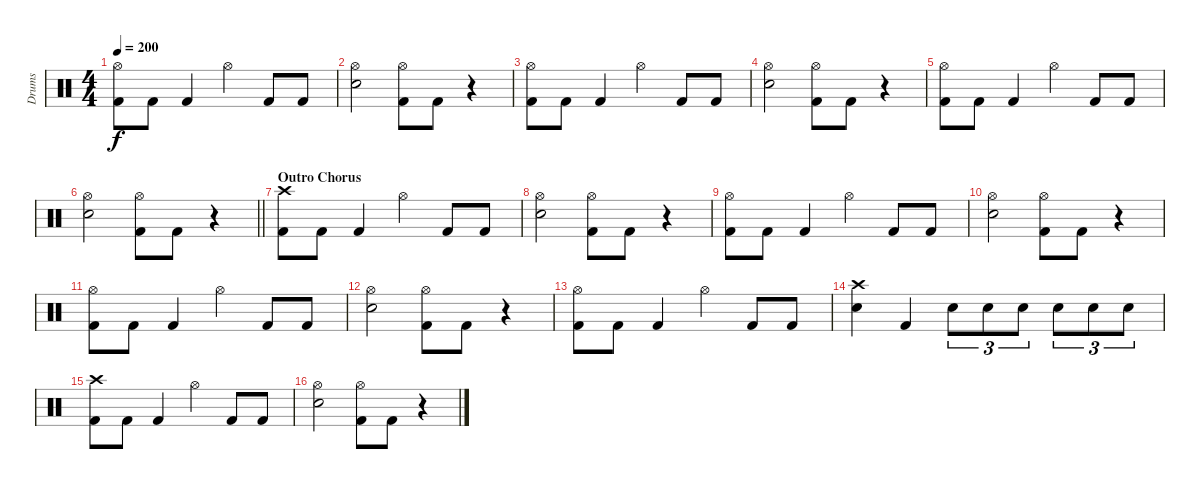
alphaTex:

\track ("Drums" "Drums") {instrument percussion}
\staff {score}
\articulation defaults
\ts (4 4)
\tempo 200
\clef neutral
\ks c
("Hi-Hat (open)" "Kick (hit) 2").8{dy f} "Kick (hit) 2".8 "Kick (hit) 2".4 "Hi-Hat (open)".4 "Kick (hit) 2".8 "Kick (hit) 2".8 |
("Hi-Hat (open)" "Snare (hit) 2").2 ("Hi-Hat (open)" "Kick (hit) 2").8 "Kick (hit) 2".8 r.4 |
("Hi-Hat (open)" "Kick (hit) 2").8 "Kick (hit) 2".8 "Kick (hit) 2".4 "Hi-Hat (open)".4 "Kick (hit) 2".8 "Kick (hit) 2".8 |
("Hi-Hat (open)" "Snare (hit) 2").2 ("Hi-Hat (open)" "Kick (hit) 2").8 "Kick (hit) 2".8 r.4 |
("Hi-Hat (open)" "Kick (hit) 2").8 "Kick (hit) 2".8 "Kick (hit) 2".4 "Hi-Hat (open)".4 "Kick (hit) 2".8 "Kick (hit) 2".8 |
\barLineRight lightlight
("Hi-Hat (open)" "Snare (hit) 2").2 ("Hi-Hat (open)" "Kick (hit) 2").8 "Kick (hit) 2".8 r.4 |
\section ("" "Outro Chorus")
("Crash high (hit)" "Kick (hit) 2").8 "Kick (hit) 2".8 "Kick (hit) 2".4 "Hi-Hat (open)".4 "Kick (hit) 2".8 "Kick (hit) 2".8 |
("Hi-Hat (open)" "Snare (hit) 2").2 ("Hi-Hat (open)" "Kick (hit) 2").8 "Kick (hit) 2".8 r.4 |
("Hi-Hat (open)" "Kick (hit) 2").8 "Kick (hit) 2".8 "Kick (hit) 2".4 "Hi-Hat (open)".4 "Kick (hit) 2".8 "Kick (hit) 2".8 |
("Hi-Hat (open)" "Snare (hit) 2").2 ("Hi-Hat (open)" "Kick (hit) 2").8 "Kick (hit) 2".8 r.4 |
("Hi-Hat (open)" "Kick (hit) 2").8 "Kick (hit) 2".8 "Kick (hit) 2".4 "Hi-Hat (open)".4 "Kick (hit) 2".8 "Kick (hit) 2".8 |
("Hi-Hat (open)" "Snare (hit) 2").2 ("Hi-Hat (open)" "Kick (hit) 2").8 "Kick (hit) 2".8 r.4 |
("Hi-Hat (open)" "Kick (hit) 2").8 "Kick (hit) 2".8 "Kick (hit) 2".4 "Hi-Hat (open)".4 "Kick (hit) 2".8 "Kick (hit) 2".8 |
("Crash high (hit)" "Snare (hit) 2").4 "Kick (hit) 2".4 "Snare (hit) 2".8{tu (3 2)} "Snare (hit) 2".8{tu (3 2)} "Snare (hit) 2".8{tu (3 2)} "Snare (hit) 2".8{tu (3 2)} "Snare (hit) 2".8{tu (3 2)} "Snare (hit) 2".8{tu (3 2)} |
("Crash high (hit)" "Kick (hit) 2").8 "Kick (hit) 2".8 "Kick (hit) 2".4 "Hi-Hat (open)".4 "Kick (hit) 2".8 "Kick (hit) 2".8 |
("Hi-Hat (open)" "Snare (hit) 2").2 ("Hi-Hat (open)" "Kick (hit) 2").8 "Kick (hit) 2".8 r.4
